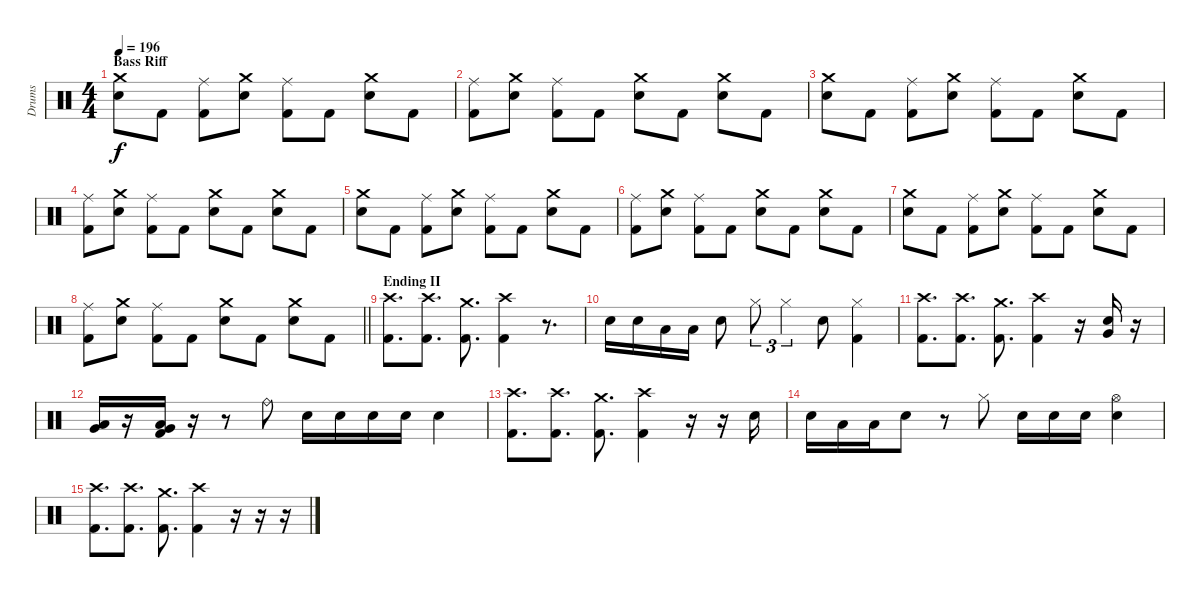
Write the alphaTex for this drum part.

\track ("Drums" "Drums") {instrument percussion}
\staff {score}
\articulation defaults
\ts (4 4)
\section ("" "Bass Riff")
\tempo 196
\clef neutral
\ks c
("Crash medium (hit)" "Electric Snare (hit)").8{dy f} "Kick (hit) 2".8 ("Ride (middle)" "Kick (hit) 2").8 ("Crash medium (hit)" "Electric Snare (hit)").8 ("Ride (middle)" "Kick (hit) 2").8 "Kick (hit) 2".8 ("Crash medium (hit)" "Electric Snare (hit)").8 "Kick (hit) 2".8 |
("Ride (middle)" "Kick (hit) 2").8 ("Crash medium (hit)" "Electric Snare (hit)").8 ("Ride (middle)" "Kick (hit) 2").8 "Kick (hit) 2".8 ("Crash medium (hit)" "Electric Snare (hit)").8 "Kick (hit) 2".8 ("Crash medium (hit)" "Electric Snare (hit)").8 "Kick (hit) 2".8 |
("Crash medium (hit)" "Electric Snare (hit)").8 "Kick (hit) 2".8 ("Ride (middle)" "Kick (hit) 2").8 ("Crash medium (hit)" "Electric Snare (hit)").8 ("Ride (middle)" "Kick (hit) 2").8 "Kick (hit) 2".8 ("Crash medium (hit)" "Electric Snare (hit)").8 "Kick (hit) 2".8 |
("Ride (middle)" "Kick (hit) 2").8 ("Crash medium (hit)" "Electric Snare (hit)").8 ("Ride (middle)" "Kick (hit) 2").8 "Kick (hit) 2".8 ("Crash medium (hit)" "Electric Snare (hit)").8 "Kick (hit) 2".8 ("Crash medium (hit)" "Electric Snare (hit)").8 "Kick (hit) 2".8 |
("Crash medium (hit)" "Electric Snare (hit)").8 "Kick (hit) 2".8 ("Ride (middle)" "Kick (hit) 2").8 ("Crash medium (hit)" "Electric Snare (hit)").8 ("Ride (middle)" "Kick (hit) 2").8 "Kick (hit) 2".8 ("Crash medium (hit)" "Electric Snare (hit)").8 "Kick (hit) 2".8 |
("Ride (middle)" "Kick (hit) 2").8 ("Crash medium (hit)" "Electric Snare (hit)").8 ("Ride (middle)" "Kick (hit) 2").8 "Kick (hit) 2".8 ("Crash medium (hit)" "Electric Snare (hit)").8 "Kick (hit) 2".8 ("Crash medium (hit)" "Electric Snare (hit)").8 "Kick (hit) 2".8 |
("Crash medium (hit)" "Electric Snare (hit)").8 "Kick (hit) 2".8 ("Ride (middle)" "Kick (hit) 2").8 ("Crash medium (hit)" "Electric Snare (hit)").8 ("Ride (middle)" "Kick (hit) 2").8 "Kick (hit) 2".8 ("Crash medium (hit)" "Electric Snare (hit)").8 "Kick (hit) 2".8 |
\barLineRight lightlight
("Ride (middle)" "Kick (hit) 2").8 ("Crash medium (hit)" "Electric Snare (hit)").8 ("Ride (middle)" "Kick (hit) 2").8 "Kick (hit) 2".8 ("Crash medium (hit)" "Electric Snare (hit)").8 "Kick (hit) 2".8 ("Crash medium (hit)" "Electric Snare (hit)").8 "Kick (hit) 2".8 |
\section ("" "Ending II")
("Crash high (hit)" "Kick (hit) 2").8{d} ("Crash high (hit)" "Kick (hit) 2").8{d} ("Crash medium (hit)" "Kick (hit) 2").8{d} ("Crash high (hit)" "Kick (hit) 2").4 r.8{d} |
"Electric Snare (hit)".16 "Electric Snare (hit)".16 "Low Tom (hit)".16 "Low Tom (hit)".16 "Electric Snare (hit)".8 "Hi-Hat (closed)".8{tu (3 2)} "Hi-Hat (closed)".4{tu (3 2)} "Electric Snare (hit)".8 ("Hi-Hat (closed)" "Kick (hit) 2").4 |
("Crash high (hit)" "Kick (hit) 2").8{d} ("Crash high (hit)" "Kick (hit) 2").8{d} ("Crash medium (hit)" "Kick (hit) 2").8{d} ("Crash high (hit)" "Kick (hit) 2").4 r.16 ("Very Low Tom (hit)" "Electric Snare (hit)").16 r.16 |
("Low Tom (hit)" "Very Low Tom (hit)").16 r.16 ("Low Tom (hit)" "Very Low Tom (hit)" "Kick (hit) 2").16 r.16 r.8 "Ride (bell)".8 "Electric Snare (hit)".16 "Electric Snare (hit)".16 "Electric Snare (hit)".16 "Electric Snare (hit)".16 "Electric Snare (hit)".4 |
("Crash high (hit)" "Kick (hit) 2").8{d} ("Crash high (hit)" "Kick (hit) 2").8{d} ("Crash medium (hit)" "Kick (hit) 2").8{d} ("Crash high (hit)" "Kick (hit) 2").4 r.16 r.16 "Electric Snare (hit)".16 |
"Electric Snare (hit)".16 "Low Tom (hit)".16 "Low Tom (hit)".16 "Electric Snare (hit)".8 r.8 "Hi-Hat (closed)".8 "Electric Snare (hit)".16 "Electric Snare (hit)".16 "Electric Snare (hit)".16 ("Hi-Hat (open)" "Electric Snare (hit)").4 |
("Crash high (hit)" "Kick (hit) 2").8{d} ("Crash high (hit)" "Kick (hit) 2").8{d} ("Crash medium (hit)" "Kick (hit) 2").8{d} ("Crash high (hit)" "Kick (hit) 2").4 r.16 r.16 r.16
